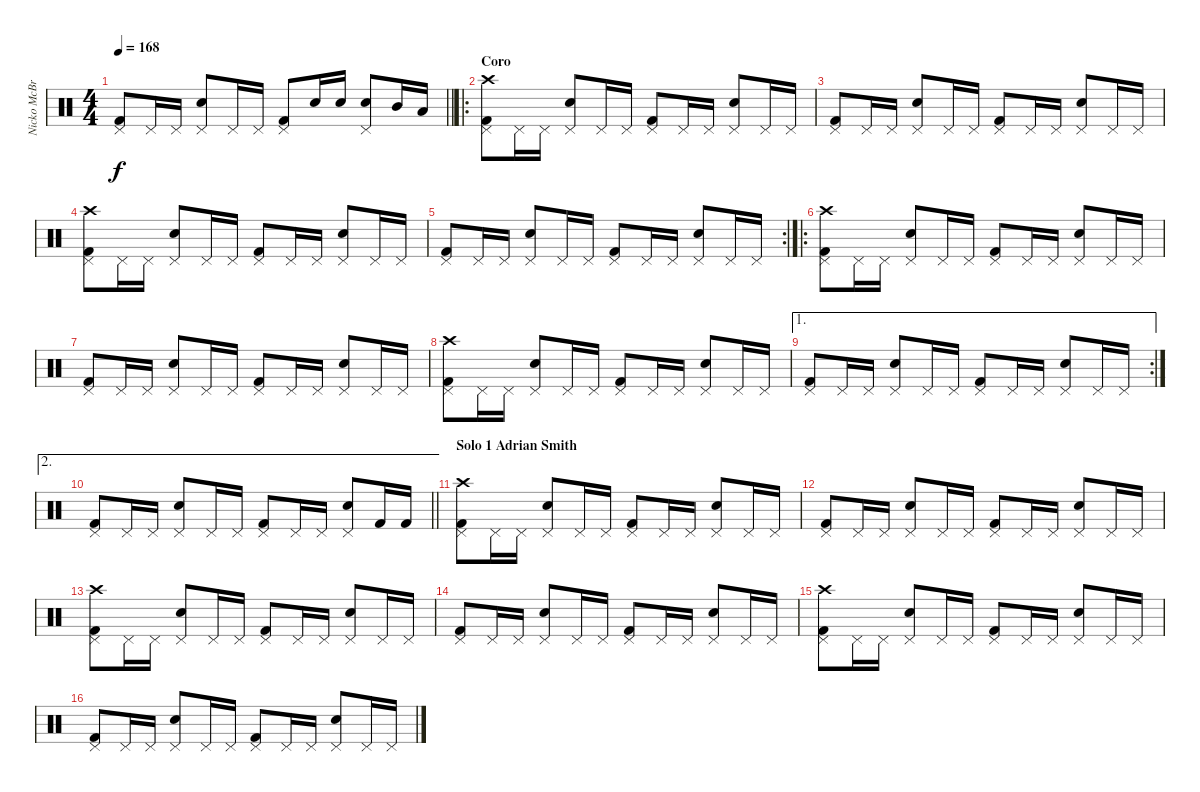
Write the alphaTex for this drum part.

\track ("Nicko McBrain" "Nicko McBr") {instrument percussion}
\staff {score}
\articulation defaults
\ts (4 4)
\tempo 168
\clef neutral
\barLineRight lightlight
\ks c
("Kick (hit) 2" "Pedal Hi-Hat (hit)").8{dy f} "Pedal Hi-Hat (hit)".16 "Pedal Hi-Hat (hit)".16 ("Snare (hit) 2" "Pedal Hi-Hat (hit)").8 "Pedal Hi-Hat (hit)".16 "Pedal Hi-Hat (hit)".16 ("Kick (hit) 2" "Pedal Hi-Hat (hit)").8 "Snare (hit) 2".16 "Snare (hit) 2".16 ("Snare (hit) 2" "Pedal Hi-Hat (hit)").8 "Mid Tom (hit)".16 "Low Tom (hit)".16 |
\ro
\section ("" "Coro")
("Kick (hit) 2" "Pedal Hi-Hat (hit)" "Crash high (hit)").8 "Pedal Hi-Hat (hit)".16 "Pedal Hi-Hat (hit)".16 ("Snare (hit) 2" "Pedal Hi-Hat (hit)").8 "Pedal Hi-Hat (hit)".16 "Pedal Hi-Hat (hit)".16 ("Kick (hit) 2" "Pedal Hi-Hat (hit)").8 "Pedal Hi-Hat (hit)".16 "Pedal Hi-Hat (hit)".16 ("Snare (hit) 2" "Pedal Hi-Hat (hit)").8 "Pedal Hi-Hat (hit)".16 "Pedal Hi-Hat (hit)".16 |
("Kick (hit) 2" "Pedal Hi-Hat (hit)").8 "Pedal Hi-Hat (hit)".16 "Pedal Hi-Hat (hit)".16 ("Snare (hit) 2" "Pedal Hi-Hat (hit)").8 "Pedal Hi-Hat (hit)".16 "Pedal Hi-Hat (hit)".16 ("Kick (hit) 2" "Pedal Hi-Hat (hit)").8 "Pedal Hi-Hat (hit)".16 "Pedal Hi-Hat (hit)".16 ("Snare (hit) 2" "Pedal Hi-Hat (hit)").8 "Pedal Hi-Hat (hit)".16 "Pedal Hi-Hat (hit)".16 |
("Kick (hit) 2" "Pedal Hi-Hat (hit)" "Crash high (hit)").8 "Pedal Hi-Hat (hit)".16 "Pedal Hi-Hat (hit)".16 ("Snare (hit) 2" "Pedal Hi-Hat (hit)").8 "Pedal Hi-Hat (hit)".16 "Pedal Hi-Hat (hit)".16 ("Kick (hit) 2" "Pedal Hi-Hat (hit)").8 "Pedal Hi-Hat (hit)".16 "Pedal Hi-Hat (hit)".16 ("Snare (hit) 2" "Pedal Hi-Hat (hit)").8 "Pedal Hi-Hat (hit)".16 "Pedal Hi-Hat (hit)".16 |
\rc 2
("Kick (hit) 2" "Pedal Hi-Hat (hit)").8 "Pedal Hi-Hat (hit)".16 "Pedal Hi-Hat (hit)".16 ("Snare (hit) 2" "Pedal Hi-Hat (hit)").8 "Pedal Hi-Hat (hit)".16 "Pedal Hi-Hat (hit)".16 ("Kick (hit) 2" "Pedal Hi-Hat (hit)").8 "Pedal Hi-Hat (hit)".16 "Pedal Hi-Hat (hit)".16 ("Snare (hit) 2" "Pedal Hi-Hat (hit)").8 "Pedal Hi-Hat (hit)".16 "Pedal Hi-Hat (hit)".16 |
\ro
("Kick (hit) 2" "Pedal Hi-Hat (hit)" "Crash high (hit)").8 "Pedal Hi-Hat (hit)".16 "Pedal Hi-Hat (hit)".16 ("Snare (hit) 2" "Pedal Hi-Hat (hit)").8 "Pedal Hi-Hat (hit)".16 "Pedal Hi-Hat (hit)".16 ("Kick (hit) 2" "Pedal Hi-Hat (hit)").8 "Pedal Hi-Hat (hit)".16 "Pedal Hi-Hat (hit)".16 ("Snare (hit) 2" "Pedal Hi-Hat (hit)").8 "Pedal Hi-Hat (hit)".16 "Pedal Hi-Hat (hit)".16 |
("Kick (hit) 2" "Pedal Hi-Hat (hit)").8 "Pedal Hi-Hat (hit)".16 "Pedal Hi-Hat (hit)".16 ("Snare (hit) 2" "Pedal Hi-Hat (hit)").8 "Pedal Hi-Hat (hit)".16 "Pedal Hi-Hat (hit)".16 ("Kick (hit) 2" "Pedal Hi-Hat (hit)").8 "Pedal Hi-Hat (hit)".16 "Pedal Hi-Hat (hit)".16 ("Snare (hit) 2" "Pedal Hi-Hat (hit)").8 "Pedal Hi-Hat (hit)".16 "Pedal Hi-Hat (hit)".16 |
("Kick (hit) 2" "Pedal Hi-Hat (hit)" "Crash high (hit)").8 "Pedal Hi-Hat (hit)".16 "Pedal Hi-Hat (hit)".16 ("Snare (hit) 2" "Pedal Hi-Hat (hit)").8 "Pedal Hi-Hat (hit)".16 "Pedal Hi-Hat (hit)".16 ("Kick (hit) 2" "Pedal Hi-Hat (hit)").8 "Pedal Hi-Hat (hit)".16 "Pedal Hi-Hat (hit)".16 ("Snare (hit) 2" "Pedal Hi-Hat (hit)").8 "Pedal Hi-Hat (hit)".16 "Pedal Hi-Hat (hit)".16 |
\ae 1
\rc 2
("Kick (hit) 2" "Pedal Hi-Hat (hit)").8 "Pedal Hi-Hat (hit)".16 "Pedal Hi-Hat (hit)".16 ("Snare (hit) 2" "Pedal Hi-Hat (hit)").8 "Pedal Hi-Hat (hit)".16 "Pedal Hi-Hat (hit)".16 ("Kick (hit) 2" "Pedal Hi-Hat (hit)").8 "Pedal Hi-Hat (hit)".16 "Pedal Hi-Hat (hit)".16 ("Snare (hit) 2" "Pedal Hi-Hat (hit)").8 "Pedal Hi-Hat (hit)".16 "Pedal Hi-Hat (hit)".16 |
\ae 2
\barLineRight lightlight
("Kick (hit) 2" "Pedal Hi-Hat (hit)").8 "Pedal Hi-Hat (hit)".16 "Pedal Hi-Hat (hit)".16 ("Snare (hit) 2" "Pedal Hi-Hat (hit)").8 "Pedal Hi-Hat (hit)".16 "Pedal Hi-Hat (hit)".16 ("Kick (hit) 2" "Pedal Hi-Hat (hit)").8 "Pedal Hi-Hat (hit)".16 "Pedal Hi-Hat (hit)".16 ("Snare (hit) 2" "Pedal Hi-Hat (hit)").8 "Kick (hit) 2".16 "Kick (hit) 2".16 |
\section ("" "Solo 1 Adrian Smith")
("Kick (hit) 2" "Pedal Hi-Hat (hit)" "Crash high (hit)").8 "Pedal Hi-Hat (hit)".16 "Pedal Hi-Hat (hit)".16 ("Snare (hit) 2" "Pedal Hi-Hat (hit)").8 "Pedal Hi-Hat (hit)".16 "Pedal Hi-Hat (hit)".16 ("Kick (hit) 2" "Pedal Hi-Hat (hit)").8 "Pedal Hi-Hat (hit)".16 "Pedal Hi-Hat (hit)".16 ("Snare (hit) 2" "Pedal Hi-Hat (hit)").8 "Pedal Hi-Hat (hit)".16 "Pedal Hi-Hat (hit)".16 |
("Kick (hit) 2" "Pedal Hi-Hat (hit)").8 "Pedal Hi-Hat (hit)".16 "Pedal Hi-Hat (hit)".16 ("Snare (hit) 2" "Pedal Hi-Hat (hit)").8 "Pedal Hi-Hat (hit)".16 "Pedal Hi-Hat (hit)".16 ("Kick (hit) 2" "Pedal Hi-Hat (hit)").8 "Pedal Hi-Hat (hit)".16 "Pedal Hi-Hat (hit)".16 ("Snare (hit) 2" "Pedal Hi-Hat (hit)").8 "Pedal Hi-Hat (hit)".16 "Pedal Hi-Hat (hit)".16 |
("Kick (hit) 2" "Pedal Hi-Hat (hit)" "Crash high (hit)").8 "Pedal Hi-Hat (hit)".16 "Pedal Hi-Hat (hit)".16 ("Snare (hit) 2" "Pedal Hi-Hat (hit)").8 "Pedal Hi-Hat (hit)".16 "Pedal Hi-Hat (hit)".16 ("Kick (hit) 2" "Pedal Hi-Hat (hit)").8 "Pedal Hi-Hat (hit)".16 "Pedal Hi-Hat (hit)".16 ("Snare (hit) 2" "Pedal Hi-Hat (hit)").8 "Pedal Hi-Hat (hit)".16 "Pedal Hi-Hat (hit)".16 |
("Kick (hit) 2" "Pedal Hi-Hat (hit)").8 "Pedal Hi-Hat (hit)".16 "Pedal Hi-Hat (hit)".16 ("Snare (hit) 2" "Pedal Hi-Hat (hit)").8 "Pedal Hi-Hat (hit)".16 "Pedal Hi-Hat (hit)".16 ("Kick (hit) 2" "Pedal Hi-Hat (hit)").8 "Pedal Hi-Hat (hit)".16 "Pedal Hi-Hat (hit)".16 ("Snare (hit) 2" "Pedal Hi-Hat (hit)").8 "Pedal Hi-Hat (hit)".16 "Pedal Hi-Hat (hit)".16 |
("Kick (hit) 2" "Pedal Hi-Hat (hit)" "Crash high (hit)").8 "Pedal Hi-Hat (hit)".16 "Pedal Hi-Hat (hit)".16 ("Snare (hit) 2" "Pedal Hi-Hat (hit)").8 "Pedal Hi-Hat (hit)".16 "Pedal Hi-Hat (hit)".16 ("Kick (hit) 2" "Pedal Hi-Hat (hit)").8 "Pedal Hi-Hat (hit)".16 "Pedal Hi-Hat (hit)".16 ("Snare (hit) 2" "Pedal Hi-Hat (hit)").8 "Pedal Hi-Hat (hit)".16 "Pedal Hi-Hat (hit)".16 |
("Kick (hit) 2" "Pedal Hi-Hat (hit)").8 "Pedal Hi-Hat (hit)".16 "Pedal Hi-Hat (hit)".16 ("Snare (hit) 2" "Pedal Hi-Hat (hit)").8 "Pedal Hi-Hat (hit)".16 "Pedal Hi-Hat (hit)".16 ("Kick (hit) 2" "Pedal Hi-Hat (hit)").8 "Pedal Hi-Hat (hit)".16 "Pedal Hi-Hat (hit)".16 ("Snare (hit) 2" "Pedal Hi-Hat (hit)").8 "Pedal Hi-Hat (hit)".16 "Pedal Hi-Hat (hit)".16
